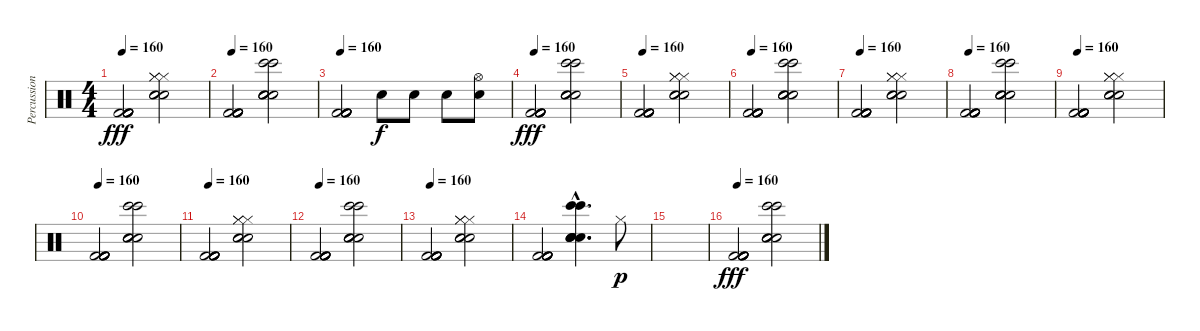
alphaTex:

\track ("Percussion" "Percussion") {instrument percussion}
\staff {score}
\articulation defaults
\ts (4 4)
\tempo 160
\clef neutral
\ks c
("Kick (hit) 2" "Kick (hit) 2" "Kick (hit) 2" "Kick (hit) 2" "Kick (hit) 2" "Kick (hit) 2").2{dy fff} ("Snare (hit) 2" "Snare (hit) 2" "Snare (hit) 2" "Hi-Hat (closed)" "Hi-Hat (closed)" "Hi-Hat (closed)").2 |
\tempo 160
("Kick (hit) 2" "Kick (hit) 2" "Kick (hit) 2" "Kick (hit) 2" "Kick (hit) 2" "Kick (hit) 2").2 ("Hand Clap (hit)" "Hand Clap (hit)" "Electric Snare (hit)" "Hand Clap (hit)" "Bongo High (hit)" "Bongo High (hit)").2 |
\tempo 160
("Kick (hit) 2" "Kick (hit) 2" "Kick (hit) 2" "Kick (hit) 2" "Kick (hit) 2" "Kick (hit) 2").2 "Snare (hit) 2".8{dy f} "Snare (hit) 2".8 "Snare (hit) 2".8 ("Snare (hit) 2" "Hi-Hat (open)").8 |
\tempo 160
("Kick (hit) 2" "Kick (hit) 2" "Kick (hit) 2" "Kick (hit) 2" "Kick (hit) 2" "Kick (hit) 2").2{dy fff} ("Hand Clap (hit)" "Hand Clap (hit)" "Electric Snare (hit)" "Hand Clap (hit)" "Bongo High (hit)" "Bongo High (hit)").2 |
\tempo 160
("Kick (hit) 2" "Kick (hit) 2" "Kick (hit) 2" "Kick (hit) 2" "Kick (hit) 2" "Kick (hit) 2").2 ("Snare (hit) 2" "Snare (hit) 2" "Snare (hit) 2" "Hi-Hat (closed)" "Hi-Hat (closed)" "Hi-Hat (closed)").2 |
\tempo 160
("Kick (hit) 2" "Kick (hit) 2" "Kick (hit) 2" "Kick (hit) 2" "Kick (hit) 2" "Kick (hit) 2").2 ("Hand Clap (hit)" "Hand Clap (hit)" "Electric Snare (hit)" "Hand Clap (hit)" "Bongo High (hit)" "Bongo High (hit)").2 |
\tempo 160
("Kick (hit) 2" "Kick (hit) 2" "Kick (hit) 2" "Kick (hit) 2" "Kick (hit) 2" "Kick (hit) 2").2 ("Snare (hit) 2" "Snare (hit) 2" "Snare (hit) 2" "Hi-Hat (closed)" "Hi-Hat (closed)" "Hi-Hat (closed)").2 |
\tempo 160
("Kick (hit) 2" "Kick (hit) 2" "Kick (hit) 2" "Kick (hit) 2" "Kick (hit) 2" "Kick (hit) 2").2 ("Hand Clap (hit)" "Hand Clap (hit)" "Electric Snare (hit)" "Hand Clap (hit)" "Bongo High (hit)" "Bongo High (hit)").2 |
\tempo 160
("Kick (hit) 2" "Kick (hit) 2" "Kick (hit) 2" "Kick (hit) 2" "Kick (hit) 2" "Kick (hit) 2").2 ("Snare (hit) 2" "Snare (hit) 2" "Snare (hit) 2" "Hi-Hat (closed)" "Hi-Hat (closed)" "Hi-Hat (closed)").2 |
\tempo 160
("Kick (hit) 2" "Kick (hit) 2" "Kick (hit) 2" "Kick (hit) 2" "Kick (hit) 2" "Kick (hit) 2").2 ("Hand Clap (hit)" "Hand Clap (hit)" "Electric Snare (hit)" "Hand Clap (hit)" "Bongo High (hit)" "Bongo High (hit)").2 |
\tempo 160
("Kick (hit) 2" "Kick (hit) 2" "Kick (hit) 2" "Kick (hit) 2" "Kick (hit) 2" "Kick (hit) 2").2 ("Snare (hit) 2" "Snare (hit) 2" "Snare (hit) 2" "Hi-Hat (closed)" "Hi-Hat (closed)" "Hi-Hat (closed)").2 |
\tempo 160
("Kick (hit) 2" "Kick (hit) 2" "Kick (hit) 2" "Kick (hit) 2" "Kick (hit) 2" "Kick (hit) 2").2 ("Hand Clap (hit)" "Hand Clap (hit)" "Electric Snare (hit)" "Hand Clap (hit)" "Bongo High (hit)" "Bongo High (hit)").2 |
\tempo 160
("Kick (hit) 2" "Kick (hit) 2" "Kick (hit) 2" "Kick (hit) 2" "Kick (hit) 2" "Kick (hit) 2").2 ("Snare (hit) 2" "Snare (hit) 2" "Snare (hit) 2" "Hi-Hat (closed)" "Hi-Hat (closed)" "Hi-Hat (closed)").2 |
("Kick (hit) 2" "Kick (hit) 2" "Kick (hit) 2" "Kick (hit) 2" "Kick (hit) 2" "Kick (hit) 2").2 ("Hand Clap (hit)"{hac} "Hand Clap (hit)"{hac} "Electric Snare (hit)"{hac} "Hand Clap (hit)"{hac} "Bongo High (hit)"{hac} "Bongo High (hit)"{hac}).4{d} "Hi-Hat (closed)".8{dy p} |
|
\tempo 160
("Kick (hit) 2" "Kick (hit) 2" "Kick (hit) 2" "Kick (hit) 2" "Kick (hit) 2" "Kick (hit) 2").2{dy fff} ("Hand Clap (hit)" "Hand Clap (hit)" "Electric Snare (hit)" "Hand Clap (hit)" "Bongo High (hit)" "Bongo High (hit)").2
